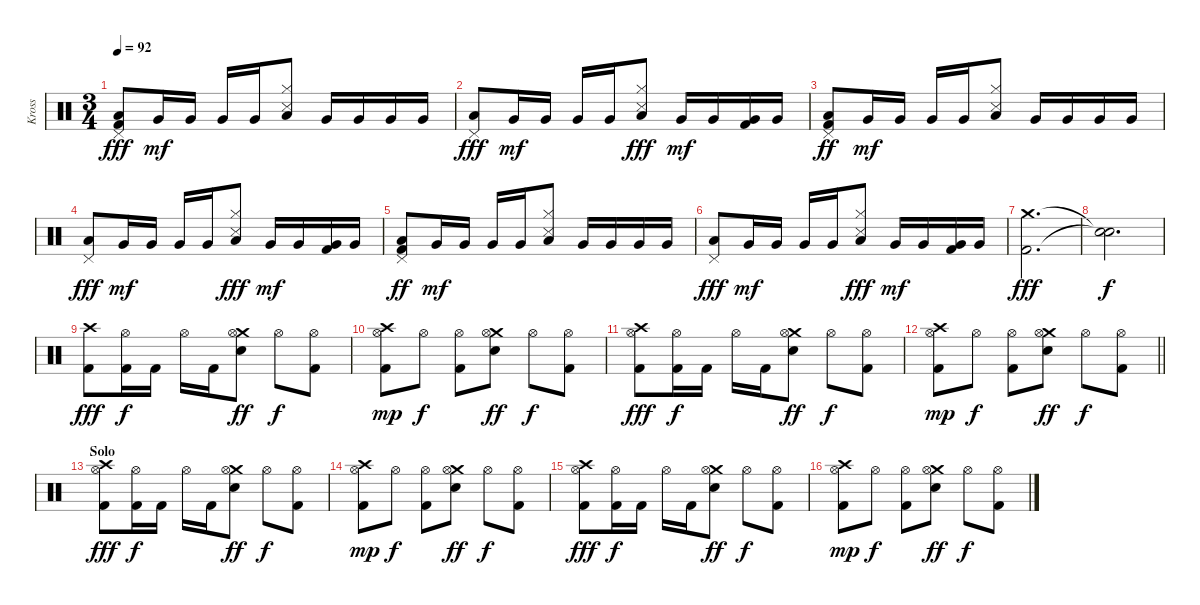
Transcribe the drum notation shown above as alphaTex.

\track ("Kross" "Kross") {instrument percussion}
\staff {score}
\articulation defaults
\ts (3 4)
\tempo 92
\clef neutral
\ks c
("Pedal Hi-Hat (hit)" "Low Floor Tom (hit)" "Kick (hit) 2").8{dy fff} "Very Low Tom (hit)".16{dy mf} "Very Low Tom (hit)".16 "Very Low Tom (hit)".16 "Very Low Tom (hit)".16 ("Hi-Hat (closed)" "Snare (side stick) 3" "Low Floor Tom (hit)").8 "Very Low Tom (hit)".16 "Very Low Tom (hit)".16 "Very Low Tom (hit)".16 "Very Low Tom (hit)".16 |
("Pedal Hi-Hat (hit)" "Low Floor Tom (hit)").8{dy fff} "Very Low Tom (hit)".16{dy mf} "Very Low Tom (hit)".16 "Very Low Tom (hit)".16 "Very Low Tom (hit)".16 ("Hi-Hat (closed)" "Snare (side stick) 3" "Low Floor Tom (hit)").8{dy fff} "Very Low Tom (hit)".16{dy mf} "Very Low Tom (hit)".16 ("Very Low Tom (hit)" "Kick (hit) 2").16 "Very Low Tom (hit)".16 |
("Pedal Hi-Hat (hit)" "Low Floor Tom (hit)" "Kick (hit) 2").8{dy ff} "Very Low Tom (hit)".16{dy mf} "Very Low Tom (hit)".16 "Very Low Tom (hit)".16 "Very Low Tom (hit)".16 ("Hi-Hat (closed)" "Snare (side stick) 3" "Low Floor Tom (hit)").8 "Very Low Tom (hit)".16 "Very Low Tom (hit)".16 "Very Low Tom (hit)".16 "Very Low Tom (hit)".16 |
("Pedal Hi-Hat (hit)" "Low Floor Tom (hit)").8{dy fff} "Very Low Tom (hit)".16{dy mf} "Very Low Tom (hit)".16 "Very Low Tom (hit)".16 "Very Low Tom (hit)".16 ("Hi-Hat (closed)" "Snare (side stick) 3" "Low Floor Tom (hit)").8{dy fff} "Very Low Tom (hit)".16{dy mf} "Very Low Tom (hit)".16 ("Very Low Tom (hit)" "Kick (hit) 2").16 "Very Low Tom (hit)".16 |
("Pedal Hi-Hat (hit)" "Low Floor Tom (hit)" "Kick (hit) 2").8{dy ff} "Very Low Tom (hit)".16{dy mf} "Very Low Tom (hit)".16 "Very Low Tom (hit)".16 "Very Low Tom (hit)".16 ("Hi-Hat (closed)" "Snare (side stick) 3" "Low Floor Tom (hit)").8 "Very Low Tom (hit)".16 "Very Low Tom (hit)".16 "Very Low Tom (hit)".16 "Very Low Tom (hit)".16 |
("Pedal Hi-Hat (hit)" "Low Floor Tom (hit)").8{dy fff} "Very Low Tom (hit)".16{dy mf} "Very Low Tom (hit)".16 "Very Low Tom (hit)".16 "Very Low Tom (hit)".16 ("Hi-Hat (closed)" "Snare (side stick) 3" "Low Floor Tom (hit)").8{dy fff} "Very Low Tom (hit)".16{dy mf} "Very Low Tom (hit)".16 ("Very Low Tom (hit)" "Kick (hit) 2").16 "Very Low Tom (hit)".16 |
("Crash medium (hit)" "Kick (hit) 2").2{d dy fff} |
("Snare (hit)"{t} "Snare (hit)"{t}).2{d dy f} |
("Crash high (hit)" "Kick (hit) 2").8{dy fff} ("Hi-Hat (open)" "Kick (hit) 2").16{dy f} "Kick (hit) 2".16 "Hi-Hat (open)".16 "Kick (hit) 2".16 ("Crash medium (hit)" "Hi-Hat (open)" "Snare (hit) 2").8{dy ff} "Hi-Hat (open)".8{dy f} ("Hi-Hat (open)" "Kick (hit) 2").8 |
("Crash high (hit)" "Hi-Hat (open)" "Kick (hit) 2").8{dy mp} "Hi-Hat (open)".8{dy f} ("Hi-Hat (open)" "Kick (hit) 2").8 ("Crash medium (hit)" "Hi-Hat (open)" "Snare (hit) 2").8{dy ff} "Hi-Hat (open)".8{dy f} ("Hi-Hat (open)" "Kick (hit) 2").8 |
("Crash high (hit)" "Hi-Hat (open)" "Kick (hit) 2").8{dy fff} ("Hi-Hat (open)" "Kick (hit) 2").16{dy f} "Kick (hit) 2".16 "Hi-Hat (open)".16 "Kick (hit) 2".16 ("Crash medium (hit)" "Hi-Hat (open)" "Snare (hit) 2").8{dy ff} "Hi-Hat (open)".8{dy f} ("Hi-Hat (open)" "Kick (hit) 2").8 |
\barLineRight lightlight
("Crash high (hit)" "Hi-Hat (open)" "Kick (hit) 2").8{dy mp} "Hi-Hat (open)".8{dy f} ("Hi-Hat (open)" "Kick (hit) 2").8 ("Crash medium (hit)" "Hi-Hat (open)" "Snare (hit) 2").8{dy ff} "Hi-Hat (open)".8{dy f} ("Hi-Hat (open)" "Kick (hit) 2").8 |
\section ("" "Solo")
("Crash high (hit)" "Hi-Hat (open)" "Kick (hit) 2").8{dy fff} ("Hi-Hat (open)" "Kick (hit) 2").16{dy f} "Kick (hit) 2".16 "Hi-Hat (open)".16 "Kick (hit) 2".16 ("Crash medium (hit)" "Hi-Hat (open)" "Snare (hit) 2").8{dy ff} "Hi-Hat (open)".8{dy f} ("Hi-Hat (open)" "Kick (hit) 2").8 |
("Crash high (hit)" "Hi-Hat (open)" "Kick (hit) 2").8{dy mp} "Hi-Hat (open)".8{dy f} ("Hi-Hat (open)" "Kick (hit) 2").8 ("Crash medium (hit)" "Hi-Hat (open)" "Snare (hit) 2").8{dy ff} "Hi-Hat (open)".8{dy f} ("Hi-Hat (open)" "Kick (hit) 2").8 |
("Crash high (hit)" "Hi-Hat (open)" "Kick (hit) 2").8{dy fff} ("Hi-Hat (open)" "Kick (hit) 2").16{dy f} "Kick (hit) 2".16 "Hi-Hat (open)".16 "Kick (hit) 2".16 ("Crash medium (hit)" "Hi-Hat (open)" "Snare (hit) 2").8{dy ff} "Hi-Hat (open)".8{dy f} ("Hi-Hat (open)" "Kick (hit) 2").8 |
("Crash high (hit)" "Hi-Hat (open)" "Kick (hit) 2").8{dy mp} "Hi-Hat (open)".8{dy f} ("Hi-Hat (open)" "Kick (hit) 2").8 ("Crash medium (hit)" "Hi-Hat (open)" "Snare (hit) 2").8{dy ff} "Hi-Hat (open)".8{dy f} ("Hi-Hat (open)" "Kick (hit) 2").8
